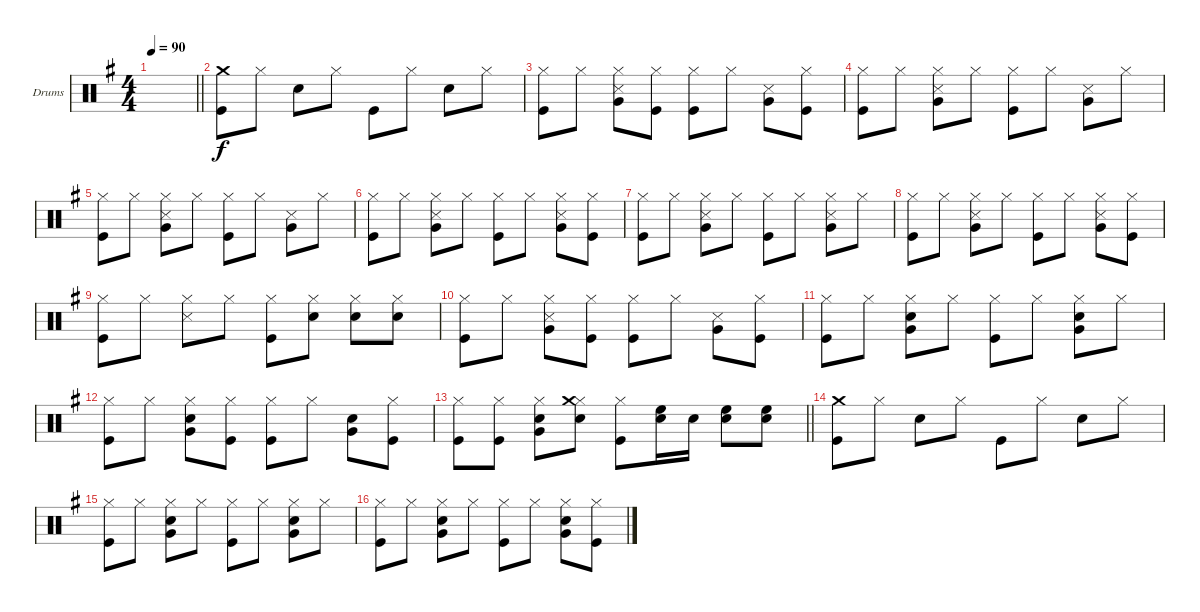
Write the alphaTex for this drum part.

\defaultSystemsLayout 4
\bracketExtendMode groupsimilarinstruments
\firstSystemTrackNameOrientation horizontal
\otherSystemsTrackNameOrientation horizontal
\track ("Drumkit" "Drums") {instrument percussion}
\staff {score}
\articulation defaults
\ts (4 4)
\tempo 90
\clef neutral
\scale
0.333333
\barLineRight lightlight
\ks g
|
\scale
0.333333 ("Kick (hit)" "Crash medium (hit)").8 "Hi-Hat (closed)".8 "Snare (hit) 2".8 "Hi-Hat (closed)".8 "Kick (hit)".8 "Hi-Hat (closed)".8 "Snare (hit) 2".8 "Hi-Hat (closed)".8 |
\scale
0.333333 ("Kick (hit)" "Hi-Hat (closed)").8 "Hi-Hat (closed)".8 ("Snare (side stick) 3" "Hi-Hat (closed)" "Very Low Tom (hit)").8 ("Kick (hit)" "Hi-Hat (closed)").8 ("Kick (hit)" "Hi-Hat (closed)").8 "Hi-Hat (closed)".8 ("Snare (side stick) 3" "Very Low Tom (hit)").8 ("Kick (hit)" "Hi-Hat (closed)").8 |
\scale
0.333333 ("Kick (hit)" "Hi-Hat (closed)").8 "Hi-Hat (closed)".8 ("Snare (side stick) 3" "Hi-Hat (closed)" "Very Low Tom (hit)").8 "Hi-Hat (closed)".8 ("Kick (hit)" "Hi-Hat (closed)").8 "Hi-Hat (closed)".8 ("Snare (side stick) 3" "Very Low Tom (hit)").8 "Hi-Hat (closed)".8 |
\scale
0.333333 ("Kick (hit)" "Hi-Hat (closed)").8 "Hi-Hat (closed)".8 ("Snare (side stick) 3" "Hi-Hat (closed)" "Very Low Tom (hit)").8 "Hi-Hat (closed)".8 ("Kick (hit)" "Hi-Hat (closed)").8 "Hi-Hat (closed)".8 ("Snare (side stick) 3" "Very Low Tom (hit)").8 "Hi-Hat (closed)".8 |
\scale
0.333333 ("Kick (hit)" "Hi-Hat (closed)").8 "Hi-Hat (closed)".8 ("Snare (side stick) 3" "Hi-Hat (closed)" "Very Low Tom (hit)").8 "Hi-Hat (closed)".8 ("Kick (hit)" "Hi-Hat (closed)").8 "Hi-Hat (closed)".8 ("Snare (side stick) 3" "Hi-Hat (closed)" "Very Low Tom (hit)").8 ("Kick (hit)" "Hi-Hat (closed)").8 |
\scale
0.333333 ("Kick (hit)" "Hi-Hat (closed)").8 "Hi-Hat (closed)".8 ("Snare (side stick) 3" "Hi-Hat (closed)" "Very Low Tom (hit)").8 "Hi-Hat (closed)".8 ("Kick (hit)" "Hi-Hat (closed)").8 "Hi-Hat (closed)".8 ("Snare (side stick) 3" "Hi-Hat (closed)" "Very Low Tom (hit)").8 "Hi-Hat (closed)".8 |
\scale
0.333333 ("Kick (hit)" "Hi-Hat (closed)").8 "Hi-Hat (closed)".8 ("Snare (side stick) 3" "Hi-Hat (closed)" "Very Low Tom (hit)").8 "Hi-Hat (closed)".8 ("Kick (hit)" "Hi-Hat (closed)").8 "Hi-Hat (closed)".8 ("Snare (side stick) 3" "Hi-Hat (closed)" "Very Low Tom (hit)").8 ("Kick (hit)" "Hi-Hat (closed)").8 |
\scale
0.333333 ("Kick (hit)" "Hi-Hat (closed)").8 "Hi-Hat (closed)".8 ("Snare (side stick) 3" "Hi-Hat (closed)").8 "Hi-Hat (closed)".8 ("Kick (hit)" "Hi-Hat (closed)").8 ("Snare (hit) 2" "Hi-Hat (closed)").8 ("Snare (hit) 2" "Hi-Hat (closed)").8 ("Snare (hit) 2" "Hi-Hat (closed)").8 |
\scale
0.333333 ("Kick (hit)" "Hi-Hat (closed)").8 "Hi-Hat (closed)".8 ("Snare (side stick) 3" "Hi-Hat (closed)" "Very Low Tom (hit)").8 ("Kick (hit)" "Hi-Hat (closed)").8 ("Kick (hit)" "Hi-Hat (closed)").8 "Hi-Hat (closed)".8 ("Snare (side stick) 3" "Very Low Tom (hit)").8 ("Kick (hit)" "Hi-Hat (closed)").8 |
\scale
0.333333 ("Kick (hit)" "Hi-Hat (closed)").8 "Hi-Hat (closed)".8 ("Snare (hit) 2" "Hi-Hat (closed)" "Very Low Tom (hit)").8 "Hi-Hat (closed)".8 ("Kick (hit)" "Hi-Hat (closed)").8 "Hi-Hat (closed)".8 ("Snare (hit) 2" "Hi-Hat (closed)" "Very Low Tom (hit)").8 "Hi-Hat (closed)".8 |
\scale
0.333333 ("Kick (hit)" "Hi-Hat (closed)").8 "Hi-Hat (closed)".8 ("Snare (hit) 2" "Hi-Hat (closed)" "Very Low Tom (hit)").8 ("Kick (hit)" "Hi-Hat (closed)").8 ("Kick (hit)" "Hi-Hat (closed)").8 "Hi-Hat (closed)".8 ("Snare (hit) 2" "Very Low Tom (hit)").8 ("Kick (hit)" "Hi-Hat (closed)").8 |
\scale
0.333333
\barLineRight lightlight
("Kick (hit)" "Hi-Hat (closed)").8 ("Kick (hit)" "Hi-Hat (closed)").8 ("Snare (hit) 2" "Hi-Hat (closed)" "Very Low Tom (hit)").8 ("Snare (hit) 2" "Hi-Hat (closed)" "Crash medium (hit)").8 ("Kick (hit)" "Hi-Hat (closed)").8 ("Snare (hit) 2" "High Floor Tom (hit)").16 "Snare (hit) 2".16 ("Snare (hit) 2" "High Floor Tom (hit)").8 ("Snare (hit) 2" "High Floor Tom (hit)").8 |
\scale
0.333333 ("Kick (hit)" "Crash medium (hit)").8 "Hi-Hat (closed)".8 "Snare (hit) 2".8 "Hi-Hat (closed)".8 "Kick (hit)".8 "Hi-Hat (closed)".8 "Snare (hit) 2".8 "Hi-Hat (closed)".8 |
\scale
0.333333 ("Kick (hit)" "Hi-Hat (closed)").8 "Hi-Hat (closed)".8 ("Snare (hit) 2" "Hi-Hat (closed)" "Very Low Tom (hit)").8 "Hi-Hat (closed)".8 ("Kick (hit)" "Hi-Hat (closed)").8 "Hi-Hat (closed)".8 ("Snare (hit) 2" "Hi-Hat (closed)" "Very Low Tom (hit)").8 "Hi-Hat (closed)".8 |
\scale
0.333333 ("Kick (hit)" "Hi-Hat (closed)").8 "Hi-Hat (closed)".8 ("Snare (hit) 2" "Hi-Hat (closed)" "Very Low Tom (hit)").8 "Hi-Hat (closed)".8 ("Kick (hit)" "Hi-Hat (closed)").8 "Hi-Hat (closed)".8 ("Snare (hit) 2" "Hi-Hat (closed)" "Very Low Tom (hit)").8 ("Kick (hit)" "Hi-Hat (closed)").8
